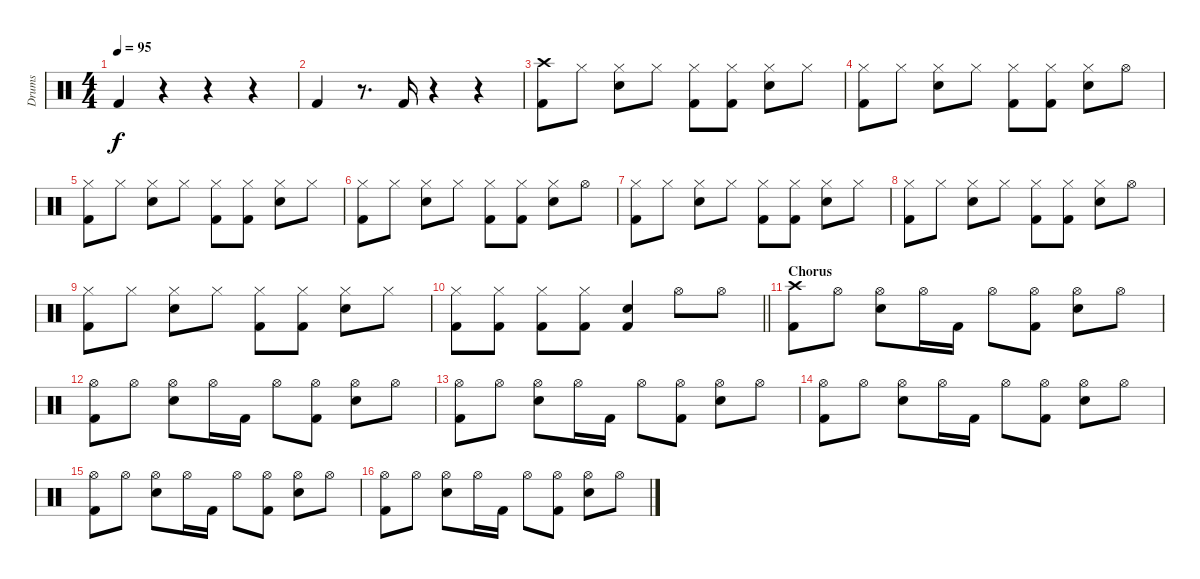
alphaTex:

\track ("Drums" "Drums") {instrument percussion}
\staff {score}
\articulation defaults
\ts (4 4)
\tempo 95
\clef neutral
\ks c "Kick (hit) 2".4{dy f}
r.4 r.4 r.4 |
"Kick (hit) 2".4 r.8{d} "Kick (hit) 2".16 r.4 r.4 |
("Crash high (hit)" "Kick (hit) 2").8 "Hi-Hat (closed)".8 ("Hi-Hat (closed)" "Electric Snare (hit)").8 "Hi-Hat (closed)".8 ("Hi-Hat (closed)" "Kick (hit) 2").8 ("Hi-Hat (closed)" "Kick (hit) 2").8 ("Hi-Hat (closed)" "Electric Snare (hit)").8 "Hi-Hat (closed)".8 |
("Hi-Hat (closed)" "Kick (hit) 2").8 "Hi-Hat (closed)".8 ("Hi-Hat (closed)" "Electric Snare (hit)").8 "Hi-Hat (closed)".8 ("Hi-Hat (closed)" "Kick (hit) 2").8 ("Hi-Hat (closed)" "Kick (hit) 2").8 ("Hi-Hat (closed)" "Electric Snare (hit)").8 "Hi-Hat (open)".8 |
("Hi-Hat (closed)" "Kick (hit) 2").8 "Hi-Hat (closed)".8 ("Hi-Hat (closed)" "Electric Snare (hit)").8 "Hi-Hat (closed)".8 ("Hi-Hat (closed)" "Kick (hit) 2").8 ("Hi-Hat (closed)" "Kick (hit) 2").8 ("Hi-Hat (closed)" "Electric Snare (hit)").8 "Hi-Hat (closed)".8 |
("Hi-Hat (closed)" "Kick (hit) 2").8 "Hi-Hat (closed)".8 ("Hi-Hat (closed)" "Electric Snare (hit)").8 "Hi-Hat (closed)".8 ("Hi-Hat (closed)" "Kick (hit) 2").8 ("Hi-Hat (closed)" "Kick (hit) 2").8 ("Hi-Hat (closed)" "Electric Snare (hit)").8 "Hi-Hat (open)".8 |
("Hi-Hat (closed)" "Kick (hit) 2").8 "Hi-Hat (closed)".8 ("Hi-Hat (closed)" "Electric Snare (hit)").8 "Hi-Hat (closed)".8 ("Hi-Hat (closed)" "Kick (hit) 2").8 ("Hi-Hat (closed)" "Kick (hit) 2").8 ("Hi-Hat (closed)" "Electric Snare (hit)").8 "Hi-Hat (closed)".8 |
("Hi-Hat (closed)" "Kick (hit) 2").8 "Hi-Hat (closed)".8 ("Hi-Hat (closed)" "Electric Snare (hit)").8 "Hi-Hat (closed)".8 ("Hi-Hat (closed)" "Kick (hit) 2").8 ("Hi-Hat (closed)" "Kick (hit) 2").8 ("Hi-Hat (closed)" "Electric Snare (hit)").8 "Hi-Hat (open)".8 |
("Hi-Hat (closed)" "Kick (hit) 2").8 "Hi-Hat (closed)".8 ("Hi-Hat (closed)" "Electric Snare (hit)").8 "Hi-Hat (closed)".8 ("Hi-Hat (closed)" "Kick (hit) 2").8 ("Hi-Hat (closed)" "Kick (hit) 2").8 ("Hi-Hat (closed)" "Electric Snare (hit)").8 "Hi-Hat (closed)".8 |
\barLineRight lightlight
("Hi-Hat (closed)" "Kick (hit) 2").8 ("Hi-Hat (closed)" "Kick (hit) 2").8 ("Hi-Hat (closed)" "Kick (hit) 2").8 ("Hi-Hat (closed)" "Kick (hit) 2").8 ("Electric Snare (hit)" "Kick (hit) 2").4 "Hi-Hat (open)".8 "Hi-Hat (open)".8 |
\section ("" "Chorus")
("Crash high (hit)" "Kick (hit) 2").8 "Hi-Hat (open)".8 ("Hi-Hat (open)" "Electric Snare (hit)").8 "Hi-Hat (open)".16 "Kick (hit) 2".16 "Hi-Hat (open)".8 ("Hi-Hat (open)" "Kick (hit) 2").8 ("Hi-Hat (open)" "Electric Snare (hit)").8 "Hi-Hat (open)".8 |
("Hi-Hat (open)" "Kick (hit) 2").8 "Hi-Hat (open)".8 ("Hi-Hat (open)" "Electric Snare (hit)").8 "Hi-Hat (open)".16 "Kick (hit) 2".16 "Hi-Hat (open)".8 ("Hi-Hat (open)" "Kick (hit) 2").8 ("Hi-Hat (open)" "Electric Snare (hit)").8 "Hi-Hat (open)".8 |
("Hi-Hat (open)" "Kick (hit) 2").8 "Hi-Hat (open)".8 ("Hi-Hat (open)" "Electric Snare (hit)").8 "Hi-Hat (open)".16 "Kick (hit) 2".16 "Hi-Hat (open)".8 ("Hi-Hat (open)" "Kick (hit) 2").8 ("Hi-Hat (open)" "Electric Snare (hit)").8 "Hi-Hat (open)".8 |
("Hi-Hat (open)" "Kick (hit) 2").8 "Hi-Hat (open)".8 ("Hi-Hat (open)" "Electric Snare (hit)").8 "Hi-Hat (open)".16 "Kick (hit) 2".16 "Hi-Hat (open)".8 ("Hi-Hat (open)" "Kick (hit) 2").8 ("Hi-Hat (open)" "Electric Snare (hit)").8 "Hi-Hat (open)".8 |
("Hi-Hat (open)" "Kick (hit) 2").8 "Hi-Hat (open)".8 ("Hi-Hat (open)" "Electric Snare (hit)").8 "Hi-Hat (open)".16 "Kick (hit) 2".16 "Hi-Hat (open)".8 ("Hi-Hat (open)" "Kick (hit) 2").8 ("Hi-Hat (open)" "Electric Snare (hit)").8 "Hi-Hat (open)".8 |
("Hi-Hat (open)" "Kick (hit) 2").8 "Hi-Hat (open)".8 ("Hi-Hat (open)" "Electric Snare (hit)").8 "Hi-Hat (open)".16 "Kick (hit) 2".16 "Hi-Hat (open)".8 ("Hi-Hat (open)" "Kick (hit) 2").8 ("Hi-Hat (open)" "Electric Snare (hit)").8 "Hi-Hat (open)".8
